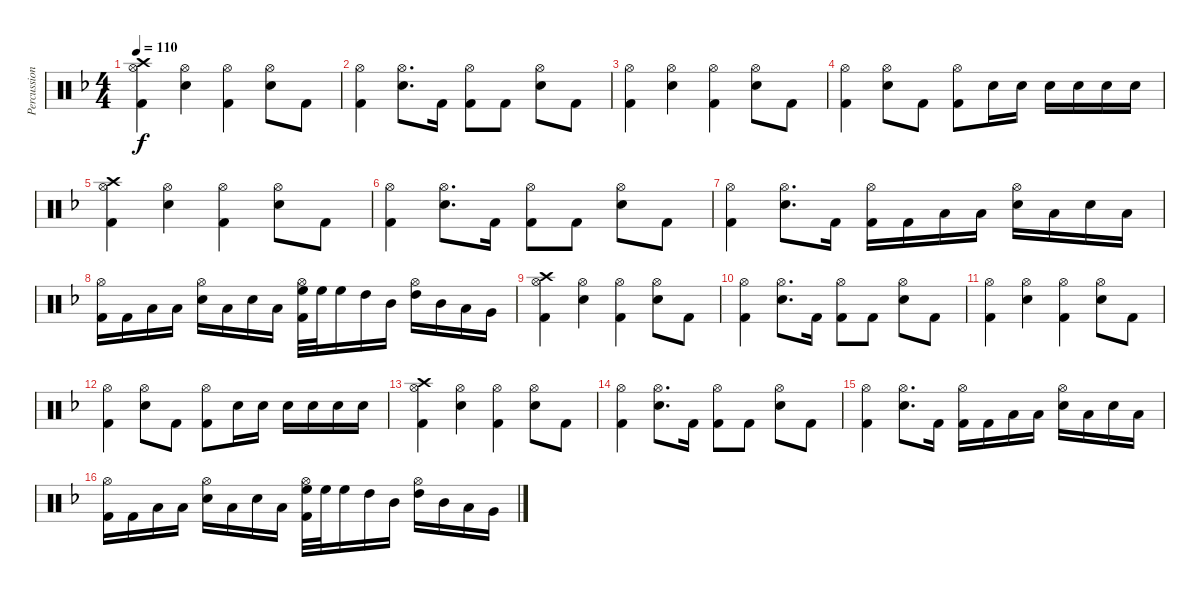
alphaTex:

\track ("Percussion" "Percussion") {instrument percussion}
\staff {score}
\articulation defaults
\ts (4 4)
\tempo 110
\clef neutral
\ks dminor
("Crash high (hit)" "Hi-Hat (open)" "Kick (hit) 2").4{dy f} ("Hi-Hat (open)" "Electric Snare (hit)").4 ("Hi-Hat (open)" "Kick (hit) 2").4 ("Hi-Hat (open)" "Electric Snare (hit)").8 "Kick (hit) 2".8 |
("Hi-Hat (open)" "Kick (hit) 2").4 ("Hi-Hat (open)" "Electric Snare (hit)").8{d} "Kick (hit) 2".16 ("Hi-Hat (open)" "Kick (hit) 2").8 "Kick (hit) 2".8 ("Hi-Hat (open)" "Electric Snare (hit)").8 "Kick (hit) 2".8 |
("Hi-Hat (open)" "Kick (hit) 2").4 ("Hi-Hat (open)" "Electric Snare (hit)").4 ("Hi-Hat (open)" "Kick (hit) 2").4 ("Hi-Hat (open)" "Electric Snare (hit)").8 "Kick (hit) 2".8 |
("Hi-Hat (open)" "Kick (hit) 2").4 ("Hi-Hat (open)" "Electric Snare (hit)").8 "Kick (hit) 2".8 ("Hi-Hat (open)" "Kick (hit) 2").8 "Electric Snare (hit)".16 "Electric Snare (hit)".16 "Electric Snare (hit)".16 "Electric Snare (hit)".16 "Electric Snare (hit)".16 "Electric Snare (hit)".16 |
("Crash high (hit)" "Hi-Hat (open)" "Kick (hit) 2").4 ("Hi-Hat (open)" "Electric Snare (hit)").4 ("Hi-Hat (open)" "Kick (hit) 2").4 ("Hi-Hat (open)" "Electric Snare (hit)").8 "Kick (hit) 2".8 |
("Hi-Hat (open)" "Kick (hit) 2").4 ("Hi-Hat (open)" "Electric Snare (hit)").8{d} "Kick (hit) 2".16 ("Hi-Hat (open)" "Kick (hit) 2").8 "Kick (hit) 2".8 ("Hi-Hat (open)" "Electric Snare (hit)").8 "Kick (hit) 2".8 |
("Hi-Hat (open)" "Kick (hit) 2").4 ("Hi-Hat (open)" "Electric Snare (hit)").8{d} "Kick (hit) 2".16 ("Hi-Hat (open)" "Kick (hit) 2").16 "Kick (hit) 2".16 "Low Tom (hit)".16 "Low Tom (hit)".16 ("Hi-Hat (open)" "Electric Snare (hit)").16 "Low Tom (hit)".16 "Electric Snare (hit)".16 "Low Tom (hit)".16 |
("Hi-Hat (open)" "Kick (hit) 2").16 "Kick (hit) 2".16 "Low Tom (hit)".16 "Low Tom (hit)".16 ("Hi-Hat (open)" "Electric Snare (hit)").16 "Low Tom (hit)".16 "Electric Snare (hit)".16 "Low Tom (hit)".16 ("Hi-Hat (open)" "High Floor Tom (hit)" "Kick (hit) 2").32 "High Floor Tom (hit)".32 "High Floor Tom (hit)".16 "High Tom (hit)".16 "Mid Tom (hit)".16 ("Hi-Hat (open)" "High Tom (hit)").16 "Mid Tom (hit)".16 "Low Tom (hit)".16 "Very Low Tom (hit)".16 |
("Crash high (hit)" "Hi-Hat (open)" "Kick (hit) 2").4 ("Hi-Hat (open)" "Electric Snare (hit)").4 ("Hi-Hat (open)" "Kick (hit) 2").4 ("Hi-Hat (open)" "Electric Snare (hit)").8 "Kick (hit) 2".8 |
("Hi-Hat (open)" "Kick (hit) 2").4 ("Hi-Hat (open)" "Electric Snare (hit)").8{d} "Kick (hit) 2".16 ("Hi-Hat (open)" "Kick (hit) 2").8 "Kick (hit) 2".8 ("Hi-Hat (open)" "Electric Snare (hit)").8 "Kick (hit) 2".8 |
("Hi-Hat (open)" "Kick (hit) 2").4 ("Hi-Hat (open)" "Electric Snare (hit)").4 ("Hi-Hat (open)" "Kick (hit) 2").4 ("Hi-Hat (open)" "Electric Snare (hit)").8 "Kick (hit) 2".8 |
("Hi-Hat (open)" "Kick (hit) 2").4 ("Hi-Hat (open)" "Electric Snare (hit)").8 "Kick (hit) 2".8 ("Hi-Hat (open)" "Kick (hit) 2").8 "Electric Snare (hit)".16 "Electric Snare (hit)".16 "Electric Snare (hit)".16 "Electric Snare (hit)".16 "Electric Snare (hit)".16 "Electric Snare (hit)".16 |
("Crash high (hit)" "Hi-Hat (open)" "Kick (hit) 2").4 ("Hi-Hat (open)" "Electric Snare (hit)").4 ("Hi-Hat (open)" "Kick (hit) 2").4 ("Hi-Hat (open)" "Electric Snare (hit)").8 "Kick (hit) 2".8 |
("Hi-Hat (open)" "Kick (hit) 2").4 ("Hi-Hat (open)" "Electric Snare (hit)").8{d} "Kick (hit) 2".16 ("Hi-Hat (open)" "Kick (hit) 2").8 "Kick (hit) 2".8 ("Hi-Hat (open)" "Electric Snare (hit)").8 "Kick (hit) 2".8 |
("Hi-Hat (open)" "Kick (hit) 2").4 ("Hi-Hat (open)" "Electric Snare (hit)").8{d} "Kick (hit) 2".16 ("Hi-Hat (open)" "Kick (hit) 2").16 "Kick (hit) 2".16 "Low Tom (hit)".16 "Low Tom (hit)".16 ("Hi-Hat (open)" "Electric Snare (hit)").16 "Low Tom (hit)".16 "Electric Snare (hit)".16 "Low Tom (hit)".16 |
("Hi-Hat (open)" "Kick (hit) 2").16 "Kick (hit) 2".16 "Low Tom (hit)".16 "Low Tom (hit)".16 ("Hi-Hat (open)" "Electric Snare (hit)").16 "Low Tom (hit)".16 "Electric Snare (hit)".16 "Low Tom (hit)".16 ("Hi-Hat (open)" "High Floor Tom (hit)" "Kick (hit) 2").32 "High Floor Tom (hit)".32 "High Floor Tom (hit)".16 "High Tom (hit)".16 "Mid Tom (hit)".16 ("Hi-Hat (open)" "High Tom (hit)").16 "Mid Tom (hit)".16 "Low Tom (hit)".16 "Very Low Tom (hit)".16
